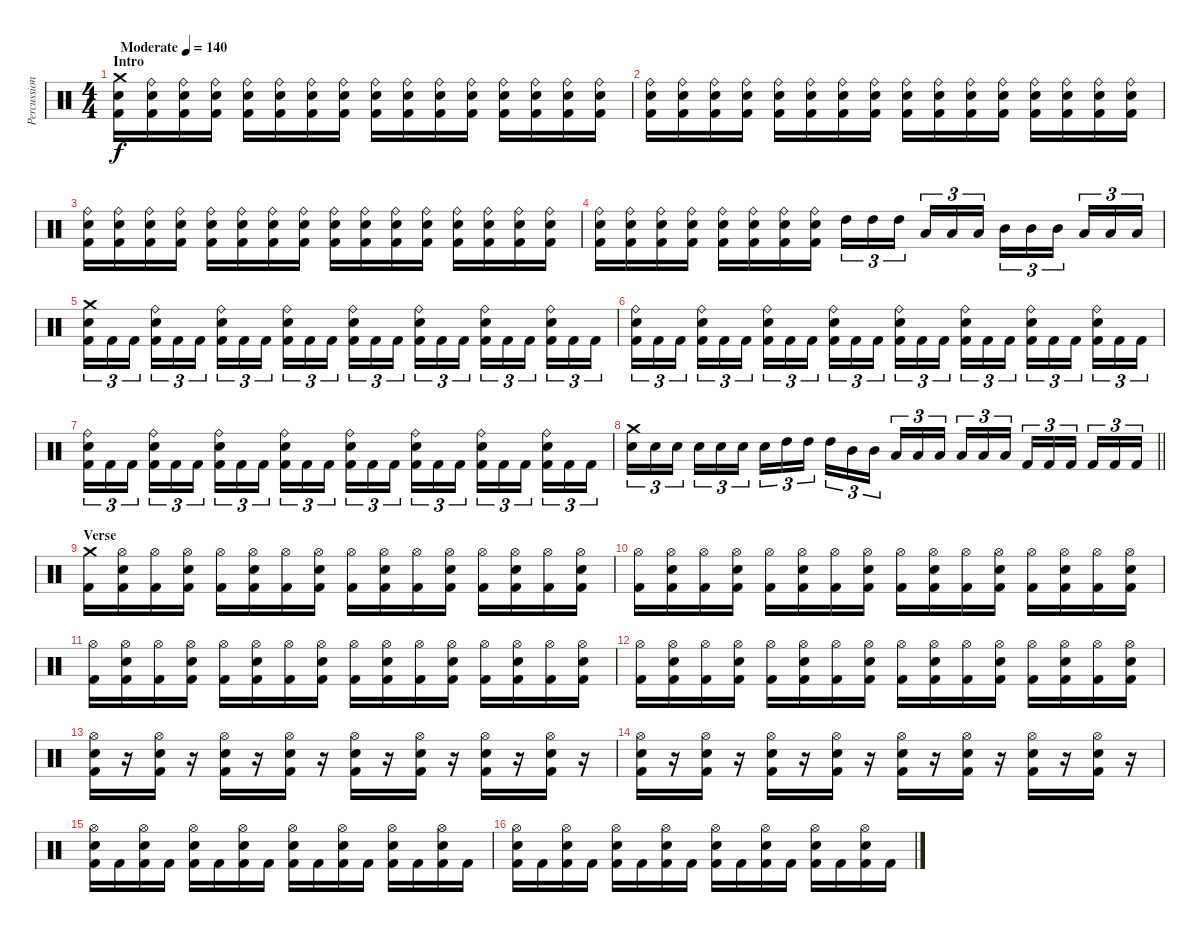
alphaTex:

\track ("Percussion" "Percussion") {instrument percussion}
\staff {score}
\articulation defaults
\ts (4 4)
\section ("" "Intro")
\tempo (140 "Moderate")
\clef neutral
\ks c
("Crash medium (hit)" "Electric Snare (hit)" "Kick (hit) 2").16{dy f} ("Ride (bell)" "Electric Snare (hit)" "Kick (hit) 2").16 ("Ride (bell)" "Electric Snare (hit)" "Kick (hit) 2").16 ("Ride (bell)" "Electric Snare (hit)" "Kick (hit) 2").16 ("Ride (bell)" "Electric Snare (hit)" "Kick (hit) 2").16 ("Ride (bell)" "Electric Snare (hit)" "Kick (hit) 2").16 ("Ride (bell)" "Electric Snare (hit)" "Kick (hit) 2").16 ("Ride (bell)" "Electric Snare (hit)" "Kick (hit) 2").16 ("Ride (bell)" "Electric Snare (hit)" "Kick (hit) 2").16 ("Ride (bell)" "Electric Snare (hit)" "Kick (hit) 2").16 ("Ride (bell)" "Electric Snare (hit)" "Kick (hit) 2").16 ("Ride (bell)" "Electric Snare (hit)" "Kick (hit) 2").16 ("Ride (bell)" "Electric Snare (hit)" "Kick (hit) 2").16 ("Ride (bell)" "Electric Snare (hit)" "Kick (hit) 2").16 ("Ride (bell)" "Electric Snare (hit)" "Kick (hit) 2").16 ("Ride (bell)" "Electric Snare (hit)" "Kick (hit) 2").16 |
("Ride (bell)" "Electric Snare (hit)" "Kick (hit) 2").16 ("Ride (bell)" "Electric Snare (hit)" "Kick (hit) 2").16 ("Ride (bell)" "Electric Snare (hit)" "Kick (hit) 2").16 ("Ride (bell)" "Electric Snare (hit)" "Kick (hit) 2").16 ("Ride (bell)" "Electric Snare (hit)" "Kick (hit) 2").16 ("Ride (bell)" "Electric Snare (hit)" "Kick (hit) 2").16 ("Ride (bell)" "Electric Snare (hit)" "Kick (hit) 2").16 ("Ride (bell)" "Electric Snare (hit)" "Kick (hit) 2").16 ("Ride (bell)" "Electric Snare (hit)" "Kick (hit) 2").16 ("Ride (bell)" "Electric Snare (hit)" "Kick (hit) 2").16 ("Ride (bell)" "Electric Snare (hit)" "Kick (hit) 2").16 ("Ride (bell)" "Electric Snare (hit)" "Kick (hit) 2").16 ("Ride (bell)" "Electric Snare (hit)" "Kick (hit) 2").16 ("Ride (bell)" "Electric Snare (hit)" "Kick (hit) 2").16 ("Ride (bell)" "Electric Snare (hit)" "Kick (hit) 2").16 ("Ride (bell)" "Electric Snare (hit)" "Kick (hit) 2").16 |
("Ride (bell)" "Electric Snare (hit)" "Kick (hit) 2").16 ("Ride (bell)" "Electric Snare (hit)" "Kick (hit) 2").16 ("Ride (bell)" "Electric Snare (hit)" "Kick (hit) 2").16 ("Ride (bell)" "Electric Snare (hit)" "Kick (hit) 2").16 ("Ride (bell)" "Electric Snare (hit)" "Kick (hit) 2").16 ("Ride (bell)" "Electric Snare (hit)" "Kick (hit) 2").16 ("Ride (bell)" "Electric Snare (hit)" "Kick (hit) 2").16 ("Ride (bell)" "Electric Snare (hit)" "Kick (hit) 2").16 ("Ride (bell)" "Electric Snare (hit)" "Kick (hit) 2").16 ("Ride (bell)" "Electric Snare (hit)" "Kick (hit) 2").16 ("Ride (bell)" "Electric Snare (hit)" "Kick (hit) 2").16 ("Ride (bell)" "Electric Snare (hit)" "Kick (hit) 2").16 ("Ride (bell)" "Electric Snare (hit)" "Kick (hit) 2").16 ("Ride (bell)" "Electric Snare (hit)" "Kick (hit) 2").16 ("Ride (bell)" "Electric Snare (hit)" "Kick (hit) 2").16 ("Ride (bell)" "Electric Snare (hit)" "Kick (hit) 2").16 |
("Ride (bell)" "Electric Snare (hit)" "Kick (hit) 2").16 ("Ride (bell)" "Electric Snare (hit)" "Kick (hit) 2").16 ("Ride (bell)" "Electric Snare (hit)" "Kick (hit) 2").16 ("Ride (bell)" "Electric Snare (hit)" "Kick (hit) 2").16 ("Ride (bell)" "Electric Snare (hit)" "Kick (hit) 2").16 ("Ride (bell)" "Electric Snare (hit)" "Kick (hit) 2").16 ("Ride (bell)" "Electric Snare (hit)" "Kick (hit) 2").16 ("Ride (bell)" "Electric Snare (hit)" "Kick (hit) 2").16 "High Tom (hit)".16{tu (3 2)} "High Tom (hit)".16{tu (3 2)} "High Tom (hit)".16{tu (3 2) beam splitsecondary} "Low Tom (hit)".16{tu (3 2)} "Low Tom (hit)".16{tu (3 2)} "Low Tom (hit)".16{tu (3 2)} "Mid Tom (hit)".16{tu (3 2)} "Mid Tom (hit)".16{tu (3 2)} "Mid Tom (hit)".16{tu (3 2) beam splitsecondary} "Low Floor Tom (hit)".16{tu (3 2)} "Low Floor Tom (hit)".16{tu (3 2)} "Low Floor Tom (hit)".16{tu (3 2)} |
("Crash medium (hit)" "Electric Snare (hit)" "Kick (hit) 2").16{tu (3 2)} "Kick (hit) 2".16{tu (3 2)} "Kick (hit) 2".16{tu (3 2) beam splitsecondary} ("Ride (bell)" "Electric Snare (hit)" "Kick (hit) 2").16{tu (3 2)} "Kick (hit) 2".16{tu (3 2)} "Kick (hit) 2".16{tu (3 2)} ("Ride (bell)" "Electric Snare (hit)" "Kick (hit) 2").16{tu (3 2)} "Kick (hit) 2".16{tu (3 2)} "Kick (hit) 2".16{tu (3 2) beam splitsecondary} ("Ride (bell)" "Electric Snare (hit)" "Kick (hit) 2").16{tu (3 2)} "Kick (hit) 2".16{tu (3 2)} "Kick (hit) 2".16{tu (3 2)} ("Ride (bell)" "Electric Snare (hit)" "Kick (hit) 2").16{tu (3 2)} "Kick (hit) 2".16{tu (3 2)} "Kick (hit) 2".16{tu (3 2) beam splitsecondary} ("Ride (bell)" "Electric Snare (hit)" "Kick (hit) 2").16{tu (3 2)} "Kick (hit) 2".16{tu (3 2)} "Kick (hit) 2".16{tu (3 2)} ("Ride (bell)" "Electric Snare (hit)" "Kick (hit) 2").16{tu (3 2)} "Kick (hit) 2".16{tu (3 2)} "Kick (hit) 2".16{tu (3 2) beam splitsecondary} ("Ride (bell)" "Electric Snare (hit)" "Kick (hit) 2").16{tu (3 2)} "Kick (hit) 2".16{tu (3 2)} "Kick (hit) 2".16{tu (3 2)} |
("Ride (bell)" "Electric Snare (hit)" "Kick (hit) 2").16{tu (3 2)} "Kick (hit) 2".16{tu (3 2)} "Kick (hit) 2".16{tu (3 2) beam splitsecondary} ("Ride (bell)" "Electric Snare (hit)" "Kick (hit) 2").16{tu (3 2)} "Kick (hit) 2".16{tu (3 2)} "Kick (hit) 2".16{tu (3 2)} ("Ride (bell)" "Electric Snare (hit)" "Kick (hit) 2").16{tu (3 2)} "Kick (hit) 2".16{tu (3 2)} "Kick (hit) 2".16{tu (3 2) beam splitsecondary} ("Ride (bell)" "Electric Snare (hit)" "Kick (hit) 2").16{tu (3 2)} "Kick (hit) 2".16{tu (3 2)} "Kick (hit) 2".16{tu (3 2)} ("Ride (bell)" "Electric Snare (hit)" "Kick (hit) 2").16{tu (3 2)} "Kick (hit) 2".16{tu (3 2)} "Kick (hit) 2".16{tu (3 2) beam splitsecondary} ("Ride (bell)" "Electric Snare (hit)" "Kick (hit) 2").16{tu (3 2)} "Kick (hit) 2".16{tu (3 2)} "Kick (hit) 2".16{tu (3 2)} ("Ride (bell)" "Electric Snare (hit)" "Kick (hit) 2").16{tu (3 2)} "Kick (hit) 2".16{tu (3 2)} "Kick (hit) 2".16{tu (3 2) beam splitsecondary} ("Ride (bell)" "Electric Snare (hit)" "Kick (hit) 2").16{tu (3 2)} "Kick (hit) 2".16{tu (3 2)} "Kick (hit) 2".16{tu (3 2)} |
("Ride (bell)" "Electric Snare (hit)" "Kick (hit) 2").16{tu (3 2)} "Kick (hit) 2".16{tu (3 2)} "Kick (hit) 2".16{tu (3 2) beam splitsecondary} ("Ride (bell)" "Electric Snare (hit)" "Kick (hit) 2").16{tu (3 2)} "Kick (hit) 2".16{tu (3 2)} "Kick (hit) 2".16{tu (3 2)} ("Ride (bell)" "Electric Snare (hit)" "Kick (hit) 2").16{tu (3 2)} "Kick (hit) 2".16{tu (3 2)} "Kick (hit) 2".16{tu (3 2) beam splitsecondary} ("Ride (bell)" "Electric Snare (hit)" "Kick (hit) 2").16{tu (3 2)} "Kick (hit) 2".16{tu (3 2)} "Kick (hit) 2".16{tu (3 2)} ("Ride (bell)" "Electric Snare (hit)" "Kick (hit) 2").16{tu (3 2)} "Kick (hit) 2".16{tu (3 2)} "Kick (hit) 2".16{tu (3 2) beam splitsecondary} ("Ride (bell)" "Electric Snare (hit)" "Kick (hit) 2").16{tu (3 2)} "Kick (hit) 2".16{tu (3 2)} "Kick (hit) 2".16{tu (3 2)} ("Ride (bell)" "Electric Snare (hit)" "Kick (hit) 2").16{tu (3 2)} "Kick (hit) 2".16{tu (3 2)} "Kick (hit) 2".16{tu (3 2) beam splitsecondary} ("Ride (bell)" "Electric Snare (hit)" "Kick (hit) 2").16{tu (3 2)} "Kick (hit) 2".16{tu (3 2)} "Kick (hit) 2".16{tu (3 2)} |
\barLineRight lightlight
("Crash medium (hit)" "Electric Snare (hit)").16{tu (3 2)} "Electric Snare (hit)".16{tu (3 2)} "Electric Snare (hit)".16{tu (3 2) beam splitsecondary} "Electric Snare (hit)".16{tu (3 2)} "Electric Snare (hit)".16{tu (3 2)} "Electric Snare (hit)".16{tu (3 2)} "Electric Snare (hit)".16{tu (3 2)} "High Tom (hit)".16{tu (3 2)} "High Tom (hit)".16{tu (3 2) beam splitsecondary} "High Tom (hit)".16{tu (3 2)} "Mid Tom (hit)".16{tu (3 2)} "Mid Tom (hit)".16{tu (3 2)} "Low Tom (hit)".16{tu (3 2)} "Low Tom (hit)".16{tu (3 2)} "Low Tom (hit)".16{tu (3 2) beam splitsecondary} "Low Floor Tom (hit)".16{tu (3 2)} "Low Floor Tom (hit)".16{tu (3 2)} "Low Floor Tom (hit)".16{tu (3 2)} "Kick (hit) 2".16{tu (3 2)} "Kick (hit) 2".16{tu (3 2)} "Kick (hit) 2".16{tu (3 2) beam splitsecondary} "Kick (hit) 2".16{tu (3 2)} "Kick (hit) 2".16{tu (3 2)} "Kick (hit) 2".16{tu (3 2)} |
\section ("" "Verse")
("Crash medium (hit)" "Kick (hit) 2").16 ("Hi-Hat (open)" "Electric Snare (hit)" "Kick (hit) 2").16 ("Hi-Hat (open)" "Kick (hit) 2").16 ("Hi-Hat (open)" "Electric Snare (hit)" "Kick (hit) 2").16 ("Hi-Hat (open)" "Kick (hit) 2").16 ("Hi-Hat (open)" "Electric Snare (hit)" "Kick (hit) 2").16 ("Hi-Hat (open)" "Kick (hit) 2").16 ("Hi-Hat (open)" "Electric Snare (hit)" "Kick (hit) 2").16 ("Hi-Hat (open)" "Kick (hit) 2").16 ("Hi-Hat (open)" "Electric Snare (hit)" "Kick (hit) 2").16 ("Hi-Hat (open)" "Kick (hit) 2").16 ("Hi-Hat (open)" "Electric Snare (hit)" "Kick (hit) 2").16 ("Hi-Hat (open)" "Kick (hit) 2").16 ("Hi-Hat (open)" "Electric Snare (hit)" "Kick (hit) 2").16 ("Hi-Hat (open)" "Kick (hit) 2").16 ("Hi-Hat (open)" "Electric Snare (hit)" "Kick (hit) 2").16 |
("Hi-Hat (open)" "Kick (hit) 2").16 ("Hi-Hat (open)" "Electric Snare (hit)" "Kick (hit) 2").16 ("Hi-Hat (open)" "Kick (hit) 2").16 ("Hi-Hat (open)" "Electric Snare (hit)" "Kick (hit) 2").16 ("Hi-Hat (open)" "Kick (hit) 2").16 ("Hi-Hat (open)" "Electric Snare (hit)" "Kick (hit) 2").16 ("Hi-Hat (open)" "Kick (hit) 2").16 ("Hi-Hat (open)" "Electric Snare (hit)" "Kick (hit) 2").16 ("Hi-Hat (open)" "Kick (hit) 2").16 ("Hi-Hat (open)" "Electric Snare (hit)" "Kick (hit) 2").16 ("Hi-Hat (open)" "Kick (hit) 2").16 ("Hi-Hat (open)" "Electric Snare (hit)" "Kick (hit) 2").16 ("Hi-Hat (open)" "Kick (hit) 2").16 ("Hi-Hat (open)" "Electric Snare (hit)" "Kick (hit) 2").16 ("Hi-Hat (open)" "Kick (hit) 2").16 ("Hi-Hat (open)" "Electric Snare (hit)" "Kick (hit) 2").16 |
("Hi-Hat (open)" "Kick (hit) 2").16 ("Hi-Hat (open)" "Electric Snare (hit)" "Kick (hit) 2").16 ("Hi-Hat (open)" "Kick (hit) 2").16 ("Hi-Hat (open)" "Electric Snare (hit)" "Kick (hit) 2").16 ("Hi-Hat (open)" "Kick (hit) 2").16 ("Hi-Hat (open)" "Electric Snare (hit)" "Kick (hit) 2").16 ("Hi-Hat (open)" "Kick (hit) 2").16 ("Hi-Hat (open)" "Electric Snare (hit)" "Kick (hit) 2").16 ("Hi-Hat (open)" "Kick (hit) 2").16 ("Hi-Hat (open)" "Electric Snare (hit)" "Kick (hit) 2").16 ("Hi-Hat (open)" "Kick (hit) 2").16 ("Hi-Hat (open)" "Electric Snare (hit)" "Kick (hit) 2").16 ("Hi-Hat (open)" "Kick (hit) 2").16 ("Hi-Hat (open)" "Electric Snare (hit)" "Kick (hit) 2").16 ("Hi-Hat (open)" "Kick (hit) 2").16 ("Hi-Hat (open)" "Electric Snare (hit)" "Kick (hit) 2").16 |
("Hi-Hat (open)" "Kick (hit) 2").16 ("Hi-Hat (open)" "Electric Snare (hit)" "Kick (hit) 2").16 ("Hi-Hat (open)" "Kick (hit) 2").16 ("Hi-Hat (open)" "Electric Snare (hit)" "Kick (hit) 2").16 ("Hi-Hat (open)" "Kick (hit) 2").16 ("Hi-Hat (open)" "Electric Snare (hit)" "Kick (hit) 2").16 ("Hi-Hat (open)" "Kick (hit) 2").16 ("Hi-Hat (open)" "Electric Snare (hit)" "Kick (hit) 2").16 ("Hi-Hat (open)" "Kick (hit) 2").16 ("Hi-Hat (open)" "Electric Snare (hit)" "Kick (hit) 2").16 ("Hi-Hat (open)" "Kick (hit) 2").16 ("Hi-Hat (open)" "Electric Snare (hit)" "Kick (hit) 2").16 ("Hi-Hat (open)" "Kick (hit) 2").16 ("Hi-Hat (open)" "Electric Snare (hit)" "Kick (hit) 2").16 ("Hi-Hat (open)" "Kick (hit) 2").16 ("Hi-Hat (open)" "Electric Snare (hit)" "Kick (hit) 2").16 |
("Hi-Hat (open)" "Electric Snare (hit)" "Kick (hit) 2").16 r.16 ("Hi-Hat (open)" "Electric Snare (hit)" "Kick (hit) 2").16 r.16 ("Hi-Hat (open)" "Electric Snare (hit)" "Kick (hit) 2").16 r.16 ("Hi-Hat (open)" "Electric Snare (hit)" "Kick (hit) 2").16 r.16 ("Hi-Hat (open)" "Electric Snare (hit)" "Kick (hit) 2").16 r.16 ("Hi-Hat (open)" "Electric Snare (hit)" "Kick (hit) 2").16 r.16 ("Hi-Hat (open)" "Electric Snare (hit)" "Kick (hit) 2").16 r.16 ("Hi-Hat (open)" "Electric Snare (hit)" "Kick (hit) 2").16 r.16 |
("Hi-Hat (open)" "Electric Snare (hit)" "Kick (hit) 2").16 r.16 ("Hi-Hat (open)" "Electric Snare (hit)" "Kick (hit) 2").16 r.16 ("Hi-Hat (open)" "Electric Snare (hit)" "Kick (hit) 2").16 r.16 ("Hi-Hat (open)" "Electric Snare (hit)" "Kick (hit) 2").16 r.16 ("Hi-Hat (open)" "Electric Snare (hit)" "Kick (hit) 2").16 r.16 ("Hi-Hat (open)" "Electric Snare (hit)" "Kick (hit) 2").16 r.16 ("Hi-Hat (open)" "Electric Snare (hit)" "Kick (hit) 2").16 r.16 ("Hi-Hat (open)" "Electric Snare (hit)" "Kick (hit) 2").16 r.16 |
("Hi-Hat (open)" "Electric Snare (hit)" "Kick (hit) 2").16 "Kick (hit) 2".16 ("Hi-Hat (open)" "Electric Snare (hit)" "Kick (hit) 2").16 "Kick (hit) 2".16 ("Hi-Hat (open)" "Electric Snare (hit)" "Kick (hit) 2").16 "Kick (hit) 2".16 ("Hi-Hat (open)" "Electric Snare (hit)" "Kick (hit) 2").16 "Kick (hit) 2".16 ("Hi-Hat (open)" "Electric Snare (hit)" "Kick (hit) 2").16 "Kick (hit) 2".16 ("Hi-Hat (open)" "Electric Snare (hit)" "Kick (hit) 2").16 "Kick (hit) 2".16 ("Hi-Hat (open)" "Electric Snare (hit)" "Kick (hit) 2").16 "Kick (hit) 2".16 ("Hi-Hat (open)" "Electric Snare (hit)" "Kick (hit) 2").16 "Kick (hit) 2".16 |
("Hi-Hat (open)" "Electric Snare (hit)" "Kick (hit) 2").16 "Kick (hit) 2".16 ("Hi-Hat (open)" "Electric Snare (hit)" "Kick (hit) 2").16 "Kick (hit) 2".16 ("Hi-Hat (open)" "Electric Snare (hit)" "Kick (hit) 2").16 "Kick (hit) 2".16 ("Hi-Hat (open)" "Electric Snare (hit)" "Kick (hit) 2").16 "Kick (hit) 2".16 ("Hi-Hat (open)" "Electric Snare (hit)" "Kick (hit) 2").16 "Kick (hit) 2".16 ("Hi-Hat (open)" "Electric Snare (hit)" "Kick (hit) 2").16 "Kick (hit) 2".16 ("Hi-Hat (open)" "Electric Snare (hit)" "Kick (hit) 2").16 "Kick (hit) 2".16 ("Hi-Hat (open)" "Electric Snare (hit)" "Kick (hit) 2").16 "Kick (hit) 2".16
